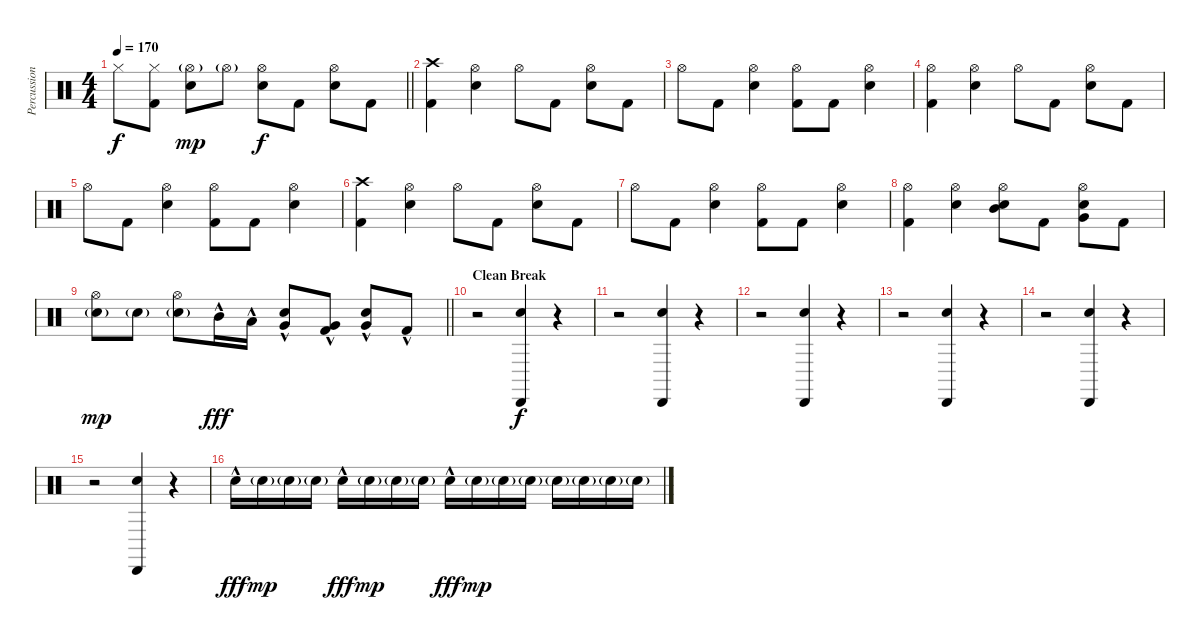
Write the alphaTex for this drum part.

\track ("Percussion" "Percussion") {instrument percussion}
\staff {score}
\articulation defaults
\ts (4 4)
\tempo 170
\clef neutral
\barLineRight lightlight
\ks c "Hi-Hat (closed)".8{dy f}
("Hi-Hat (closed)" "Kick (hit) 2").8 ("Hi-Hat (open)"{g} "Electric Snare (hit)").8{dy mp} "Hi-Hat (open)"{g}.8 ("Hi-Hat (open)" "Electric Snare (hit)").8{dy f} "Kick (hit) 2".8 ("Hi-Hat (open)" "Electric Snare (hit)").8 "Kick (hit) 2".8 |
("Crash high (hit)" "Kick (hit) 2").4 ("Hi-Hat (open)" "Electric Snare (hit)").4 "Hi-Hat (open)".8 "Kick (hit) 2".8 ("Hi-Hat (open)" "Electric Snare (hit)").8 "Kick (hit) 2".8 |
"Hi-Hat (open)".8 "Kick (hit) 2".8 ("Hi-Hat (open)" "Electric Snare (hit)").4 ("Hi-Hat (open)" "Kick (hit) 2").8 "Kick (hit) 2".8 ("Hi-Hat (open)" "Electric Snare (hit)").4 |
("Hi-Hat (open)" "Kick (hit) 2").4 ("Hi-Hat (open)" "Electric Snare (hit)").4 "Hi-Hat (open)".8 "Kick (hit) 2".8 ("Hi-Hat (open)" "Electric Snare (hit)").8 "Kick (hit) 2".8 |
"Hi-Hat (open)".8 "Kick (hit) 2".8 ("Hi-Hat (open)" "Electric Snare (hit)").4 ("Hi-Hat (open)" "Kick (hit) 2").8 "Kick (hit) 2".8 ("Hi-Hat (open)" "Electric Snare (hit)").4 |
("Crash high (hit)" "Kick (hit) 2").4 ("Hi-Hat (open)" "Electric Snare (hit)").4 "Hi-Hat (open)".8 "Kick (hit) 2".8 ("Hi-Hat (open)" "Electric Snare (hit)").8 "Kick (hit) 2".8 |
"Hi-Hat (open)".8 "Kick (hit) 2".8 ("Hi-Hat (open)" "Electric Snare (hit)").4 ("Hi-Hat (open)" "Kick (hit) 2").8 "Kick (hit) 2".8 ("Hi-Hat (open)" "Electric Snare (hit)").4 |
("Hi-Hat (open)" "Kick (hit) 2").4 ("Hi-Hat (open)" "Electric Snare (hit)").4 ("Hi-Hat (open)" "Mid Tom (hit)" "Electric Snare (hit)").8 "Kick (hit) 2".8 ("Hi-Hat (open)" "Very Low Tom (hit)" "Electric Snare (hit)").8 "Kick (hit) 2".8 |
\barLineRight lightlight
("Hi-Hat (open)" "Electric Snare (hit)"{g}).8{dy mp} "Electric Snare (hit)"{g}.8 ("Hi-Hat (open)" "Electric Snare (hit)"{g}).8 "Mid Tom (hit)"{hac}.16{dy fff} "Low Tom (hit)"{hac}.16 ("Very Low Tom (hit)"{hac} "Electric Snare (hit)").8 ("Very Low Tom (hit)"{hac} "Kick (hit) 2"{hac}).8 ("Very Low Tom (hit)"{hac} "Electric Snare (hit)").8 "Kick (hit) 2"{hac}.8 |
\section ("" "Clean Break")
r.2 ("Cabasa (hit)" "Hand Clap (hit)").4{dy f} r.4 |
r.2 ("Cabasa (hit)" "Hand Clap (hit)").4 r.4 |
r.2 ("Cabasa (hit)" "Hand Clap (hit)").4 r.4 |
r.2 ("Cabasa (hit)" "Hand Clap (hit)").4 r.4 |
r.2 ("Cabasa (hit)" "Hand Clap (hit)").4 r.4 |
r.2 ("Cabasa (hit)" "Hand Clap (hit)").4 r.4{volume 5} |
"Electric Snare (hit)"{hac}.16{dy fff volume 13} "Electric Snare (hit)"{g}.16{dy mp} "Electric Snare (hit)"{g}.16 "Electric Snare (hit)"{g}.16 "Electric Snare (hit)"{hac}.16{dy fff} "Electric Snare (hit)"{g}.16{dy mp} "Electric Snare (hit)"{g}.16 "Electric Snare (hit)"{g}.16 "Electric Snare (hit)"{hac}.16{dy fff} "Electric Snare (hit)"{g}.16{dy mp} "Electric Snare (hit)"{g}.16 "Electric Snare (hit)"{g}.16 "Electric Snare (hit)"{g}.16 "Electric Snare (hit)"{g}.16 "Electric Snare (hit)"{g}.16 "Electric Snare (hit)"{g}.16
